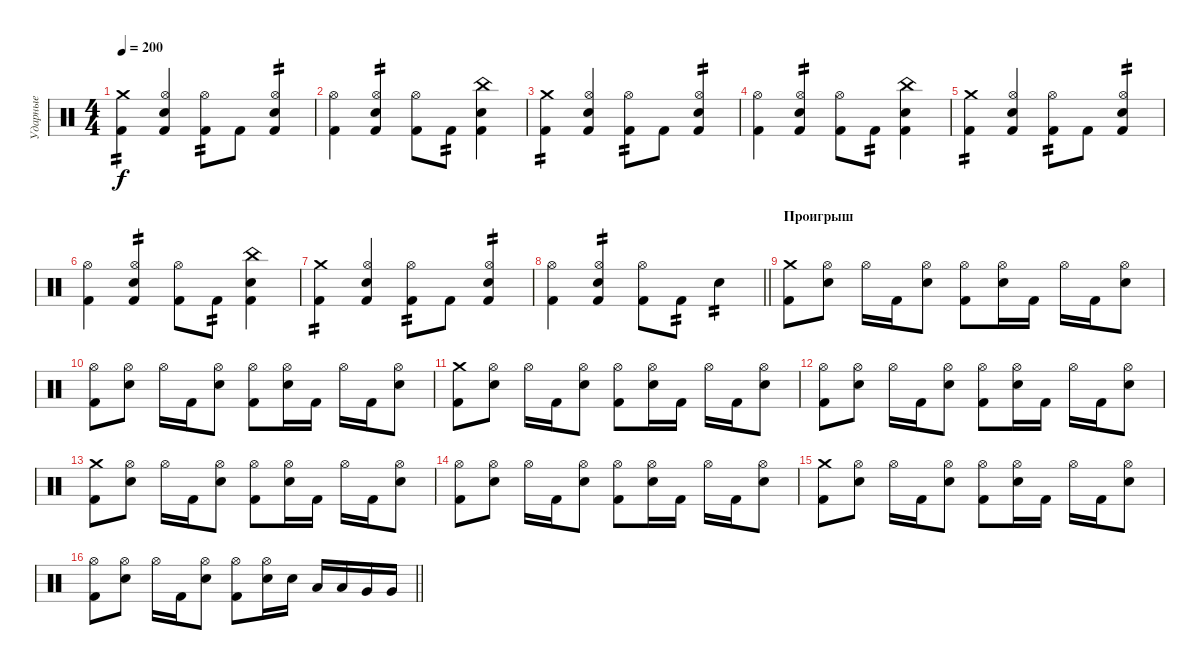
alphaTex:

\track ("Ударные" "Ударные") {instrument percussion}
\staff {score}
\articulation defaults
\ts (4 4)
\tempo 200
\clef neutral
\ks c
("Crash medium (hit)" "Kick (hit) 2").4{tp 2 dy f} ("Hi-Hat (open)" "Electric Snare (hit)" "Kick (hit) 2").4 ("Hi-Hat (open)" "Kick (hit) 2").8{tp 2} "Kick (hit) 2".8 ("Hi-Hat (open)" "Electric Snare (hit)" "Kick (hit) 2").4{tp 2} |
("Hi-Hat (open)" "Kick (hit) 2").4 ("Hi-Hat (open)" "Electric Snare (hit)" "Kick (hit) 2").4{tp 2} ("Hi-Hat (open)" "Kick (hit) 2").8 "Kick (hit) 2".8{tp 2} ("China (hit)" "Electric Snare (hit)" "Kick (hit) 2").4 |
("Crash medium (hit)" "Kick (hit) 2").4{tp 2} ("Hi-Hat (open)" "Electric Snare (hit)" "Kick (hit) 2").4 ("Hi-Hat (open)" "Kick (hit) 2").8{tp 2} "Kick (hit) 2".8 ("Hi-Hat (open)" "Electric Snare (hit)" "Kick (hit) 2").4{tp 2} |
("Hi-Hat (open)" "Kick (hit) 2").4 ("Hi-Hat (open)" "Electric Snare (hit)" "Kick (hit) 2").4{tp 2} ("Hi-Hat (open)" "Kick (hit) 2").8 "Kick (hit) 2".8{tp 2} ("China (hit)" "Electric Snare (hit)" "Kick (hit) 2").4 |
("Crash medium (hit)" "Kick (hit) 2").4{tp 2} ("Hi-Hat (open)" "Electric Snare (hit)" "Kick (hit) 2").4 ("Hi-Hat (open)" "Kick (hit) 2").8{tp 2} "Kick (hit) 2".8 ("Hi-Hat (open)" "Electric Snare (hit)" "Kick (hit) 2").4{tp 2} |
("Hi-Hat (open)" "Kick (hit) 2").4 ("Hi-Hat (open)" "Electric Snare (hit)" "Kick (hit) 2").4{tp 2} ("Hi-Hat (open)" "Kick (hit) 2").8 "Kick (hit) 2".8{tp 2} ("China (hit)" "Electric Snare (hit)" "Kick (hit) 2").4 |
("Crash medium (hit)" "Kick (hit) 2").4{tp 2} ("Hi-Hat (open)" "Electric Snare (hit)" "Kick (hit) 2").4 ("Hi-Hat (open)" "Kick (hit) 2").8{tp 2} "Kick (hit) 2".8 ("Hi-Hat (open)" "Electric Snare (hit)" "Kick (hit) 2").4{tp 2} |
\barLineRight lightlight
("Hi-Hat (open)" "Kick (hit) 2").4 ("Hi-Hat (open)" "Electric Snare (hit)" "Kick (hit) 2").4{tp 2} ("Hi-Hat (open)" "Kick (hit) 2").8 "Kick (hit) 2".8{tp 2} "Electric Snare (hit)".4{tp 2} |
\section ("" "Проигрыш")
("Kick (hit) 2" "Crash medium (hit)").8 ("Electric Snare (hit)" "Hi-Hat (open)").8 "Hi-Hat (open)".16 "Kick (hit) 2".16 ("Electric Snare (hit)" "Hi-Hat (open)").8 ("Kick (hit) 2" "Hi-Hat (open)").8 ("Electric Snare (hit)" "Hi-Hat (open)").16 "Kick (hit) 2".16 "Hi-Hat (open)".16 "Kick (hit) 2".16 ("Electric Snare (hit)" "Hi-Hat (open)").8 |
("Kick (hit) 2" "Hi-Hat (open)").8 ("Electric Snare (hit)" "Hi-Hat (open)").8 "Hi-Hat (open)".16 "Kick (hit) 2".16 ("Electric Snare (hit)" "Hi-Hat (open)").8 ("Kick (hit) 2" "Hi-Hat (open)").8 ("Electric Snare (hit)" "Hi-Hat (open)").16 "Kick (hit) 2".16 "Hi-Hat (open)".16 "Kick (hit) 2".16 ("Electric Snare (hit)" "Hi-Hat (open)").8 |
("Kick (hit) 2" "Crash medium (hit)").8 ("Electric Snare (hit)" "Hi-Hat (open)").8 "Hi-Hat (open)".16 "Kick (hit) 2".16 ("Electric Snare (hit)" "Hi-Hat (open)").8 ("Kick (hit) 2" "Hi-Hat (open)").8 ("Electric Snare (hit)" "Hi-Hat (open)").16 "Kick (hit) 2".16 "Hi-Hat (open)".16 "Kick (hit) 2".16 ("Electric Snare (hit)" "Hi-Hat (open)").8 |
("Kick (hit) 2" "Hi-Hat (open)").8 ("Electric Snare (hit)" "Hi-Hat (open)").8 "Hi-Hat (open)".16 "Kick (hit) 2".16 ("Electric Snare (hit)" "Hi-Hat (open)").8 ("Kick (hit) 2" "Hi-Hat (open)").8 ("Electric Snare (hit)" "Hi-Hat (open)").16 "Kick (hit) 2".16 "Hi-Hat (open)".16 "Kick (hit) 2".16 ("Electric Snare (hit)" "Hi-Hat (open)").8 |
("Kick (hit) 2" "Crash medium (hit)").8 ("Electric Snare (hit)" "Hi-Hat (open)").8 "Hi-Hat (open)".16 "Kick (hit) 2".16 ("Electric Snare (hit)" "Hi-Hat (open)").8 ("Kick (hit) 2" "Hi-Hat (open)").8 ("Electric Snare (hit)" "Hi-Hat (open)").16 "Kick (hit) 2".16 "Hi-Hat (open)".16 "Kick (hit) 2".16 ("Electric Snare (hit)" "Hi-Hat (open)").8 |
("Kick (hit) 2" "Hi-Hat (open)").8 ("Electric Snare (hit)" "Hi-Hat (open)").8 "Hi-Hat (open)".16 "Kick (hit) 2".16 ("Electric Snare (hit)" "Hi-Hat (open)").8 ("Kick (hit) 2" "Hi-Hat (open)").8 ("Electric Snare (hit)" "Hi-Hat (open)").16 "Kick (hit) 2".16 "Hi-Hat (open)".16 "Kick (hit) 2".16 ("Electric Snare (hit)" "Hi-Hat (open)").8 |
("Kick (hit) 2" "Crash medium (hit)").8 ("Electric Snare (hit)" "Hi-Hat (open)").8 "Hi-Hat (open)".16 "Kick (hit) 2".16 ("Electric Snare (hit)" "Hi-Hat (open)").8 ("Kick (hit) 2" "Hi-Hat (open)").8 ("Electric Snare (hit)" "Hi-Hat (open)").16 "Kick (hit) 2".16 "Hi-Hat (open)".16 "Kick (hit) 2".16 ("Electric Snare (hit)" "Hi-Hat (open)").8 |
\barLineRight lightlight
("Kick (hit) 2" "Hi-Hat (open)").8 ("Electric Snare (hit)" "Hi-Hat (open)").8 "Hi-Hat (open)".16 "Kick (hit) 2".16 ("Electric Snare (hit)" "Hi-Hat (open)").8 ("Kick (hit) 2" "Hi-Hat (open)").8 ("Electric Snare (hit)" "Hi-Hat (open)").16 "Electric Snare (hit)".16 "Low Floor Tom (hit)".16 "Low Floor Tom (hit)".16 "Very Low Tom (hit)".16 "Very Low Tom (hit)".16
